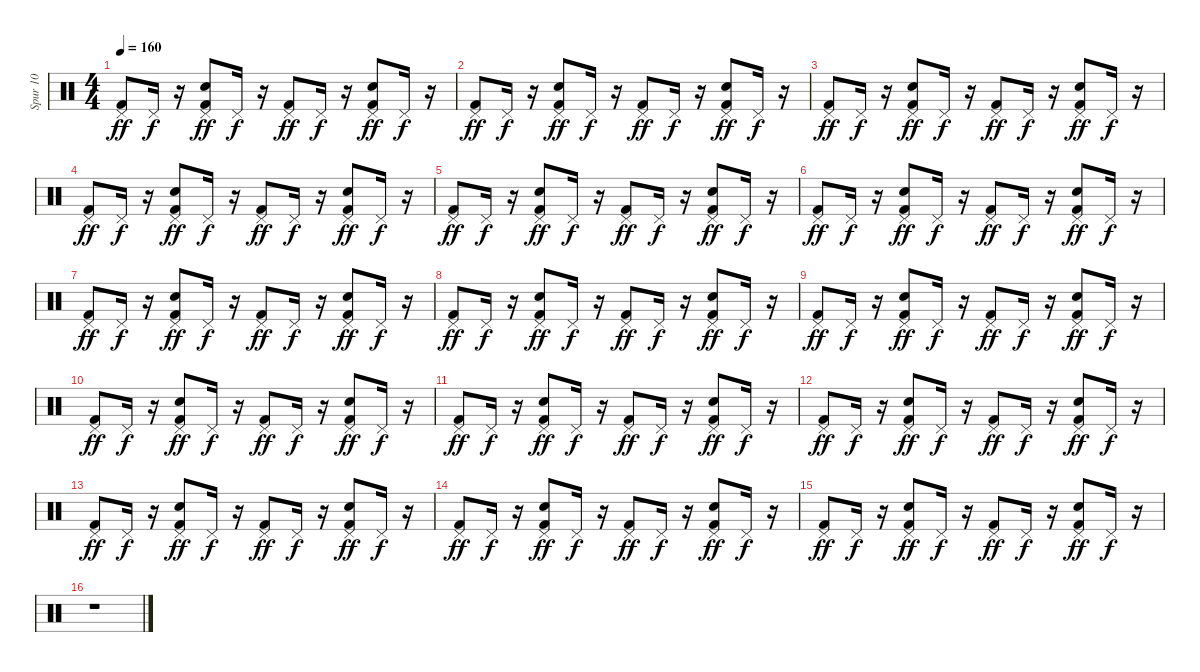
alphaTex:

\track ("Spur 10" "Spur 10") {instrument percussion}
\staff {score}
\articulation defaults
\ts (4 4)
\tempo 160
\clef neutral
\ks c
("Kick (hit) 2" "Pedal Hi-Hat (hit)").8{dy ff} "Pedal Hi-Hat (hit)".16{dy f} r.16 ("Kick (hit) 2" "Snare (hit) 2" "Pedal Hi-Hat (hit)").8{dy ff} "Pedal Hi-Hat (hit)".16{dy f} r.16 ("Kick (hit) 2" "Pedal Hi-Hat (hit)").8{dy ff} "Pedal Hi-Hat (hit)".16{dy f} r.16 ("Snare (hit) 2" "Kick (hit) 2" "Pedal Hi-Hat (hit)").8{dy ff} "Pedal Hi-Hat (hit)".16{dy f} r.16 |
("Kick (hit) 2" "Pedal Hi-Hat (hit)").8{dy ff} "Pedal Hi-Hat (hit)".16{dy f} r.16 ("Kick (hit) 2" "Snare (hit) 2" "Pedal Hi-Hat (hit)").8{dy ff} "Pedal Hi-Hat (hit)".16{dy f} r.16 ("Kick (hit) 2" "Pedal Hi-Hat (hit)").8{dy ff} "Pedal Hi-Hat (hit)".16{dy f} r.16 ("Snare (hit) 2" "Kick (hit) 2" "Pedal Hi-Hat (hit)").8{dy ff} "Pedal Hi-Hat (hit)".16{dy f} r.16 |
("Kick (hit) 2" "Pedal Hi-Hat (hit)").8{dy ff} "Pedal Hi-Hat (hit)".16{dy f} r.16 ("Kick (hit) 2" "Snare (hit) 2" "Pedal Hi-Hat (hit)").8{dy ff} "Pedal Hi-Hat (hit)".16{dy f} r.16 ("Kick (hit) 2" "Pedal Hi-Hat (hit)").8{dy ff} "Pedal Hi-Hat (hit)".16{dy f} r.16 ("Snare (hit) 2" "Kick (hit) 2" "Pedal Hi-Hat (hit)").8{dy ff} "Pedal Hi-Hat (hit)".16{dy f} r.16 |
("Kick (hit) 2" "Pedal Hi-Hat (hit)").8{dy ff} "Pedal Hi-Hat (hit)".16{dy f} r.16 ("Snare (hit) 2" "Kick (hit) 2" "Pedal Hi-Hat (hit)").8{dy ff} "Pedal Hi-Hat (hit)".16{dy f} r.16 ("Kick (hit) 2" "Pedal Hi-Hat (hit)").8{dy ff} "Pedal Hi-Hat (hit)".16{dy f} r.16 ("Kick (hit) 2" "Snare (hit) 2" "Pedal Hi-Hat (hit)").8{dy ff} "Pedal Hi-Hat (hit)".16{dy f} r.16 |
("Kick (hit) 2" "Pedal Hi-Hat (hit)").8{dy ff} "Pedal Hi-Hat (hit)".16{dy f} r.16 ("Kick (hit) 2" "Snare (hit) 2" "Pedal Hi-Hat (hit)").8{dy ff} "Pedal Hi-Hat (hit)".16{dy f} r.16 ("Kick (hit) 2" "Pedal Hi-Hat (hit)").8{dy ff} "Pedal Hi-Hat (hit)".16{dy f} r.16 ("Kick (hit) 2" "Snare (hit) 2" "Pedal Hi-Hat (hit)").8{dy ff} "Pedal Hi-Hat (hit)".16{dy f} r.16 |
("Kick (hit) 2" "Pedal Hi-Hat (hit)").8{dy ff} "Pedal Hi-Hat (hit)".16{dy f} r.16 ("Kick (hit) 2" "Snare (hit) 2" "Pedal Hi-Hat (hit)").8{dy ff} "Pedal Hi-Hat (hit)".16{dy f} r.16 ("Kick (hit) 2" "Pedal Hi-Hat (hit)").8{dy ff} "Pedal Hi-Hat (hit)".16{dy f} r.16 ("Snare (hit) 2" "Kick (hit) 2" "Pedal Hi-Hat (hit)").8{dy ff} "Pedal Hi-Hat (hit)".16{dy f} r.16 |
("Kick (hit) 2" "Pedal Hi-Hat (hit)").8{dy ff} "Pedal Hi-Hat (hit)".16{dy f} r.16 ("Snare (hit) 2" "Kick (hit) 2" "Pedal Hi-Hat (hit)").8{dy ff} "Pedal Hi-Hat (hit)".16{dy f} r.16 ("Kick (hit) 2" "Pedal Hi-Hat (hit)").8{dy ff} "Pedal Hi-Hat (hit)".16{dy f} r.16 ("Kick (hit) 2" "Snare (hit) 2" "Pedal Hi-Hat (hit)").8{dy ff} "Pedal Hi-Hat (hit)".16{dy f} r.16 |
("Kick (hit) 2" "Pedal Hi-Hat (hit)").8{dy ff} "Pedal Hi-Hat (hit)".16{dy f} r.16 ("Kick (hit) 2" "Snare (hit) 2" "Pedal Hi-Hat (hit)").8{dy ff} "Pedal Hi-Hat (hit)".16{dy f} r.16 ("Kick (hit) 2" "Pedal Hi-Hat (hit)").8{dy ff} "Pedal Hi-Hat (hit)".16{dy f} r.16 ("Kick (hit) 2" "Snare (hit) 2" "Pedal Hi-Hat (hit)").8{dy ff} "Pedal Hi-Hat (hit)".16{dy f} r.16 |
("Kick (hit) 2" "Pedal Hi-Hat (hit)").8{dy ff} "Pedal Hi-Hat (hit)".16{dy f} r.16 ("Kick (hit) 2" "Snare (hit) 2" "Pedal Hi-Hat (hit)").8{dy ff} "Pedal Hi-Hat (hit)".16{dy f} r.16 ("Kick (hit) 2" "Pedal Hi-Hat (hit)").8{dy ff} "Pedal Hi-Hat (hit)".16{dy f} r.16 ("Snare (hit) 2" "Kick (hit) 2" "Pedal Hi-Hat (hit)").8{dy ff} "Pedal Hi-Hat (hit)".16{dy f} r.16 |
("Kick (hit) 2" "Pedal Hi-Hat (hit)").8{dy ff} "Pedal Hi-Hat (hit)".16{dy f} r.16 ("Kick (hit) 2" "Snare (hit) 2" "Pedal Hi-Hat (hit)").8{dy ff} "Pedal Hi-Hat (hit)".16{dy f} r.16 ("Kick (hit) 2" "Pedal Hi-Hat (hit)").8{dy ff} "Pedal Hi-Hat (hit)".16{dy f} r.16 ("Snare (hit) 2" "Kick (hit) 2" "Pedal Hi-Hat (hit)").8{dy ff} "Pedal Hi-Hat (hit)".16{dy f} r.16 |
("Kick (hit) 2" "Pedal Hi-Hat (hit)").8{dy ff} "Pedal Hi-Hat (hit)".16{dy f} r.16 ("Kick (hit) 2" "Snare (hit) 2" "Pedal Hi-Hat (hit)").8{dy ff} "Pedal Hi-Hat (hit)".16{dy f} r.16 ("Kick (hit) 2" "Pedal Hi-Hat (hit)").8{dy ff} "Pedal Hi-Hat (hit)".16{dy f} r.16 ("Snare (hit) 2" "Kick (hit) 2" "Pedal Hi-Hat (hit)").8{dy ff} "Pedal Hi-Hat (hit)".16{dy f} r.16 |
("Kick (hit) 2" "Pedal Hi-Hat (hit)").8{dy ff} "Pedal Hi-Hat (hit)".16{dy f} r.16 ("Snare (hit) 2" "Kick (hit) 2" "Pedal Hi-Hat (hit)").8{dy ff} "Pedal Hi-Hat (hit)".16{dy f} r.16 ("Kick (hit) 2" "Pedal Hi-Hat (hit)").8{dy ff} "Pedal Hi-Hat (hit)".16{dy f} r.16 ("Kick (hit) 2" "Snare (hit) 2" "Pedal Hi-Hat (hit)").8{dy ff} "Pedal Hi-Hat (hit)".16{dy f} r.16 |
("Kick (hit) 2" "Pedal Hi-Hat (hit)").8{dy ff} "Pedal Hi-Hat (hit)".16{dy f} r.16 ("Kick (hit) 2" "Snare (hit) 2" "Pedal Hi-Hat (hit)").8{dy ff} "Pedal Hi-Hat (hit)".16{dy f} r.16 ("Kick (hit) 2" "Pedal Hi-Hat (hit)").8{dy ff} "Pedal Hi-Hat (hit)".16{dy f} r.16 ("Kick (hit) 2" "Snare (hit) 2" "Pedal Hi-Hat (hit)").8{dy ff} "Pedal Hi-Hat (hit)".16{dy f} r.16 |
("Kick (hit) 2" "Pedal Hi-Hat (hit)").8{dy ff} "Pedal Hi-Hat (hit)".16{dy f} r.16 ("Kick (hit) 2" "Snare (hit) 2" "Pedal Hi-Hat (hit)").8{dy ff} "Pedal Hi-Hat (hit)".16{dy f} r.16 ("Kick (hit) 2" "Pedal Hi-Hat (hit)").8{dy ff} "Pedal Hi-Hat (hit)".16{dy f} r.16 ("Snare (hit) 2" "Kick (hit) 2" "Pedal Hi-Hat (hit)").8{dy ff} "Pedal Hi-Hat (hit)".16{dy f} r.16 |
("Kick (hit) 2" "Pedal Hi-Hat (hit)").8{dy ff} "Pedal Hi-Hat (hit)".16{dy f} r.16 ("Snare (hit) 2" "Kick (hit) 2" "Pedal Hi-Hat (hit)").8{dy ff} "Pedal Hi-Hat (hit)".16{dy f} r.16 ("Kick (hit) 2" "Pedal Hi-Hat (hit)").8{dy ff} "Pedal Hi-Hat (hit)".16{dy f} r.16 ("Kick (hit) 2" "Snare (hit) 2" "Pedal Hi-Hat (hit)").8{dy ff} "Pedal Hi-Hat (hit)".16{dy f} r.16 |
r.1
